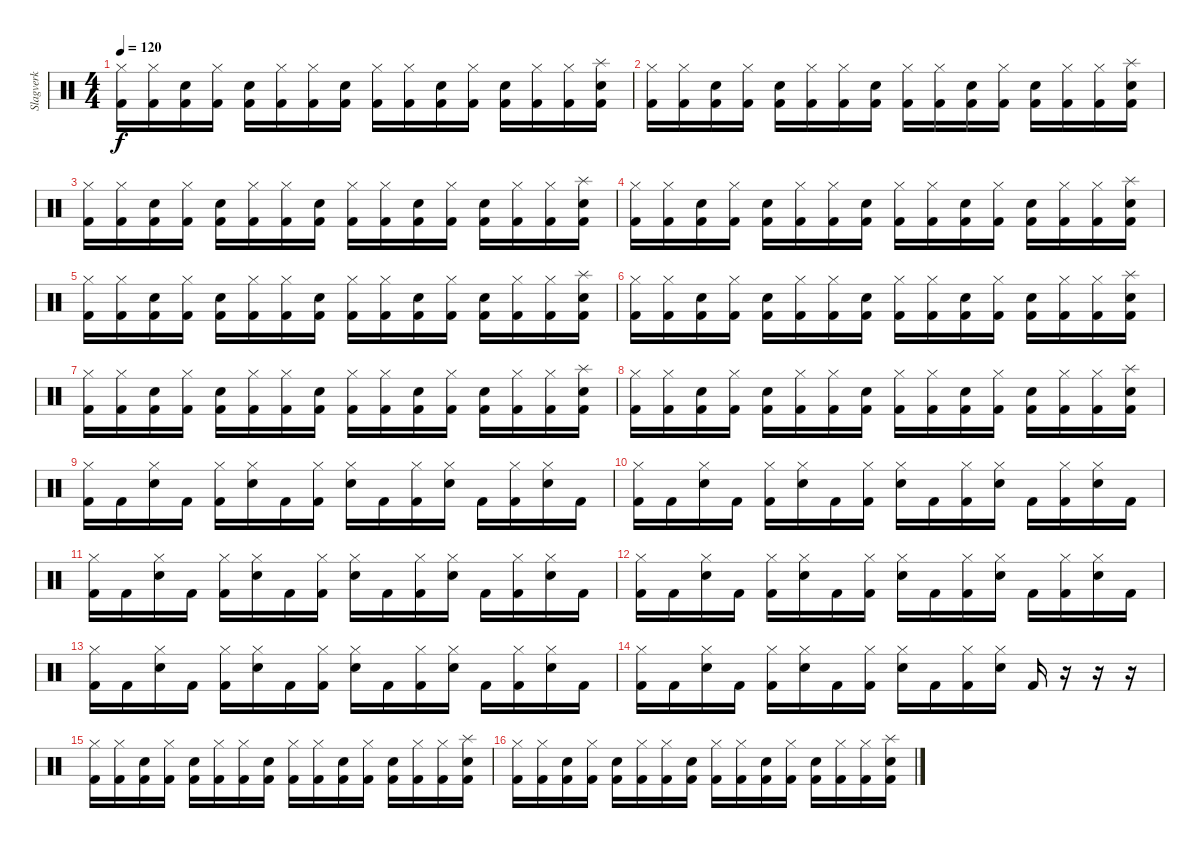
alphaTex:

\track ("Slagverk" "Slagverk") {instrument percussion}
\staff {score}
\articulation defaults
\ts (4 4)
\tempo 120
\clef neutral
\ks c
("Kick (hit) 2" "Hi-Hat (closed)").16{dy f} ("Kick (hit) 2" "Hi-Hat (closed)").16 ("Kick (hit) 2" "Snare (hit) 2").16 ("Kick (hit) 2" "Hi-Hat (closed)").16 ("Kick (hit) 2" "Snare (hit) 2").16 ("Kick (hit) 2" "Hi-Hat (closed)").16 ("Kick (hit) 2" "Hi-Hat (closed)").16 ("Kick (hit) 2" "Snare (hit) 2").16 ("Kick (hit) 2" "Hi-Hat (closed)").16 ("Kick (hit) 2" "Hi-Hat (closed)").16 ("Kick (hit) 2" "Snare (hit) 2").16 ("Kick (hit) 2" "Hi-Hat (closed)").16 ("Kick (hit) 2" "Snare (hit) 2").16 ("Kick (hit) 2" "Hi-Hat (closed)").16 ("Kick (hit) 2" "Hi-Hat (closed)").16 ("Kick (hit) 2" "Splash (hit)" "Snare (hit) 2").16 |
("Kick (hit) 2" "Hi-Hat (closed)").16 ("Kick (hit) 2" "Hi-Hat (closed)").16 ("Kick (hit) 2" "Snare (hit) 2").16 ("Kick (hit) 2" "Hi-Hat (closed)").16 ("Kick (hit) 2" "Snare (hit) 2").16 ("Kick (hit) 2" "Hi-Hat (closed)").16 ("Kick (hit) 2" "Hi-Hat (closed)").16 ("Kick (hit) 2" "Snare (hit) 2").16 ("Kick (hit) 2" "Hi-Hat (closed)").16 ("Kick (hit) 2" "Hi-Hat (closed)").16 ("Kick (hit) 2" "Snare (hit) 2").16 ("Kick (hit) 2" "Hi-Hat (closed)").16 ("Kick (hit) 2" "Snare (hit) 2").16 ("Kick (hit) 2" "Hi-Hat (closed)").16 ("Kick (hit) 2" "Hi-Hat (closed)").16 ("Kick (hit) 2" "Splash (hit)" "Snare (hit) 2").16 |
("Kick (hit) 2" "Hi-Hat (closed)").16 ("Kick (hit) 2" "Hi-Hat (closed)").16 ("Kick (hit) 2" "Snare (hit) 2").16 ("Kick (hit) 2" "Hi-Hat (closed)").16 ("Kick (hit) 2" "Snare (hit) 2").16 ("Kick (hit) 2" "Hi-Hat (closed)").16 ("Kick (hit) 2" "Hi-Hat (closed)").16 ("Kick (hit) 2" "Snare (hit) 2").16 ("Kick (hit) 2" "Hi-Hat (closed)").16 ("Kick (hit) 2" "Hi-Hat (closed)").16 ("Kick (hit) 2" "Snare (hit) 2").16 ("Kick (hit) 2" "Hi-Hat (closed)").16 ("Kick (hit) 2" "Snare (hit) 2").16 ("Kick (hit) 2" "Hi-Hat (closed)").16 ("Kick (hit) 2" "Hi-Hat (closed)").16 ("Kick (hit) 2" "Splash (hit)" "Snare (hit) 2").16 |
("Kick (hit) 2" "Hi-Hat (closed)").16 ("Kick (hit) 2" "Hi-Hat (closed)").16 ("Kick (hit) 2" "Snare (hit) 2").16 ("Kick (hit) 2" "Hi-Hat (closed)").16 ("Kick (hit) 2" "Snare (hit) 2").16 ("Kick (hit) 2" "Hi-Hat (closed)").16 ("Kick (hit) 2" "Hi-Hat (closed)").16 ("Kick (hit) 2" "Snare (hit) 2").16 ("Kick (hit) 2" "Hi-Hat (closed)").16 ("Kick (hit) 2" "Hi-Hat (closed)").16 ("Kick (hit) 2" "Snare (hit) 2").16 ("Kick (hit) 2" "Hi-Hat (closed)").16 ("Kick (hit) 2" "Snare (hit) 2").16 ("Kick (hit) 2" "Hi-Hat (closed)").16 ("Kick (hit) 2" "Hi-Hat (closed)").16 ("Kick (hit) 2" "Splash (hit)" "Snare (hit) 2").16 |
("Kick (hit) 2" "Hi-Hat (closed)").16 ("Kick (hit) 2" "Hi-Hat (closed)").16 ("Kick (hit) 2" "Snare (hit) 2").16 ("Kick (hit) 2" "Hi-Hat (closed)").16 ("Kick (hit) 2" "Snare (hit) 2").16 ("Kick (hit) 2" "Hi-Hat (closed)").16 ("Kick (hit) 2" "Hi-Hat (closed)").16 ("Kick (hit) 2" "Snare (hit) 2").16 ("Kick (hit) 2" "Hi-Hat (closed)").16 ("Kick (hit) 2" "Hi-Hat (closed)").16 ("Kick (hit) 2" "Snare (hit) 2").16 ("Kick (hit) 2" "Hi-Hat (closed)").16 ("Kick (hit) 2" "Snare (hit) 2").16 ("Kick (hit) 2" "Hi-Hat (closed)").16 ("Kick (hit) 2" "Hi-Hat (closed)").16 ("Kick (hit) 2" "Splash (hit)" "Snare (hit) 2").16 |
("Kick (hit) 2" "Hi-Hat (closed)").16 ("Kick (hit) 2" "Hi-Hat (closed)").16 ("Kick (hit) 2" "Snare (hit) 2").16 ("Kick (hit) 2" "Hi-Hat (closed)").16 ("Kick (hit) 2" "Snare (hit) 2").16 ("Kick (hit) 2" "Hi-Hat (closed)").16 ("Kick (hit) 2" "Hi-Hat (closed)").16 ("Kick (hit) 2" "Snare (hit) 2").16 ("Kick (hit) 2" "Hi-Hat (closed)").16 ("Kick (hit) 2" "Hi-Hat (closed)").16 ("Kick (hit) 2" "Snare (hit) 2").16 ("Kick (hit) 2" "Hi-Hat (closed)").16 ("Kick (hit) 2" "Snare (hit) 2").16 ("Kick (hit) 2" "Hi-Hat (closed)").16 ("Kick (hit) 2" "Hi-Hat (closed)").16 ("Kick (hit) 2" "Splash (hit)" "Snare (hit) 2").16 |
("Kick (hit) 2" "Hi-Hat (closed)").16 ("Kick (hit) 2" "Hi-Hat (closed)").16 ("Kick (hit) 2" "Snare (hit) 2").16 ("Kick (hit) 2" "Hi-Hat (closed)").16 ("Kick (hit) 2" "Snare (hit) 2").16 ("Kick (hit) 2" "Hi-Hat (closed)").16 ("Kick (hit) 2" "Hi-Hat (closed)").16 ("Kick (hit) 2" "Snare (hit) 2").16 ("Kick (hit) 2" "Hi-Hat (closed)").16 ("Kick (hit) 2" "Hi-Hat (closed)").16 ("Kick (hit) 2" "Snare (hit) 2").16 ("Kick (hit) 2" "Hi-Hat (closed)").16 ("Kick (hit) 2" "Snare (hit) 2").16 ("Kick (hit) 2" "Hi-Hat (closed)").16 ("Kick (hit) 2" "Hi-Hat (closed)").16 ("Kick (hit) 2" "Splash (hit)" "Snare (hit) 2").16 |
("Kick (hit) 2" "Hi-Hat (closed)").16 ("Kick (hit) 2" "Hi-Hat (closed)").16 ("Kick (hit) 2" "Snare (hit) 2").16 ("Kick (hit) 2" "Hi-Hat (closed)").16 ("Kick (hit) 2" "Snare (hit) 2").16 ("Kick (hit) 2" "Hi-Hat (closed)").16 ("Kick (hit) 2" "Hi-Hat (closed)").16 ("Kick (hit) 2" "Snare (hit) 2").16 ("Kick (hit) 2" "Hi-Hat (closed)").16 ("Kick (hit) 2" "Hi-Hat (closed)").16 ("Kick (hit) 2" "Snare (hit) 2").16 ("Kick (hit) 2" "Hi-Hat (closed)").16 ("Kick (hit) 2" "Snare (hit) 2").16 ("Kick (hit) 2" "Hi-Hat (closed)").16 ("Kick (hit) 2" "Hi-Hat (closed)").16 ("Kick (hit) 2" "Splash (hit)" "Snare (hit) 2").16 |
("Kick (hit) 2" "Hi-Hat (closed)").16 "Kick (hit) 2".16 ("Hi-Hat (closed)" "Snare (hit) 2").16 "Kick (hit) 2".16 ("Kick (hit) 2" "Hi-Hat (closed)").16 ("Hi-Hat (closed)" "Snare (hit) 2").16 "Kick (hit) 2".16 ("Kick (hit) 2" "Hi-Hat (closed)").16 ("Hi-Hat (closed)" "Snare (hit) 2").16 "Kick (hit) 2".16 ("Kick (hit) 2" "Hi-Hat (closed)").16 ("Hi-Hat (closed)" "Snare (hit) 2").16 "Kick (hit) 2".16 ("Kick (hit) 2" "Hi-Hat (closed)").16 ("Hi-Hat (closed)" "Snare (hit) 2").16 "Kick (hit) 2".16 |
("Kick (hit) 2" "Hi-Hat (closed)").16 "Kick (hit) 2".16 ("Hi-Hat (closed)" "Snare (hit) 2").16 "Kick (hit) 2".16 ("Kick (hit) 2" "Hi-Hat (closed)").16 ("Hi-Hat (closed)" "Snare (hit) 2").16 "Kick (hit) 2".16 ("Kick (hit) 2" "Hi-Hat (closed)").16 ("Hi-Hat (closed)" "Snare (hit) 2").16 "Kick (hit) 2".16 ("Kick (hit) 2" "Hi-Hat (closed)").16 ("Hi-Hat (closed)" "Snare (hit) 2").16 "Kick (hit) 2".16 ("Kick (hit) 2" "Hi-Hat (closed)").16 ("Hi-Hat (closed)" "Snare (hit) 2").16 "Kick (hit) 2".16 |
("Kick (hit) 2" "Hi-Hat (closed)").16 "Kick (hit) 2".16 ("Hi-Hat (closed)" "Snare (hit) 2").16 "Kick (hit) 2".16 ("Kick (hit) 2" "Hi-Hat (closed)").16 ("Hi-Hat (closed)" "Snare (hit) 2").16 "Kick (hit) 2".16 ("Kick (hit) 2" "Hi-Hat (closed)").16 ("Hi-Hat (closed)" "Snare (hit) 2").16 "Kick (hit) 2".16 ("Kick (hit) 2" "Hi-Hat (closed)").16 ("Hi-Hat (closed)" "Snare (hit) 2").16 "Kick (hit) 2".16 ("Kick (hit) 2" "Hi-Hat (closed)").16 ("Hi-Hat (closed)" "Snare (hit) 2").16 "Kick (hit) 2".16 |
("Kick (hit) 2" "Hi-Hat (closed)").16 "Kick (hit) 2".16 ("Hi-Hat (closed)" "Snare (hit) 2").16 "Kick (hit) 2".16 ("Kick (hit) 2" "Hi-Hat (closed)").16 ("Hi-Hat (closed)" "Snare (hit) 2").16 "Kick (hit) 2".16 ("Kick (hit) 2" "Hi-Hat (closed)").16 ("Hi-Hat (closed)" "Snare (hit) 2").16 "Kick (hit) 2".16 ("Kick (hit) 2" "Hi-Hat (closed)").16 ("Hi-Hat (closed)" "Snare (hit) 2").16 "Kick (hit) 2".16 ("Kick (hit) 2" "Hi-Hat (closed)").16 ("Hi-Hat (closed)" "Snare (hit) 2").16 "Kick (hit) 2".16 |
("Kick (hit) 2" "Hi-Hat (closed)").16 "Kick (hit) 2".16 ("Hi-Hat (closed)" "Snare (hit) 2").16 "Kick (hit) 2".16 ("Kick (hit) 2" "Hi-Hat (closed)").16 ("Hi-Hat (closed)" "Snare (hit) 2").16 "Kick (hit) 2".16 ("Kick (hit) 2" "Hi-Hat (closed)").16 ("Hi-Hat (closed)" "Snare (hit) 2").16 "Kick (hit) 2".16 ("Kick (hit) 2" "Hi-Hat (closed)").16 ("Hi-Hat (closed)" "Snare (hit) 2").16 "Kick (hit) 2".16 ("Kick (hit) 2" "Hi-Hat (closed)").16 ("Hi-Hat (closed)" "Snare (hit) 2").16 "Kick (hit) 2".16 |
("Kick (hit) 2" "Hi-Hat (closed)").16 "Kick (hit) 2".16 ("Hi-Hat (closed)" "Snare (hit) 2").16 "Kick (hit) 2".16 ("Kick (hit) 2" "Hi-Hat (closed)").16 ("Hi-Hat (closed)" "Snare (hit) 2").16 "Kick (hit) 2".16 ("Kick (hit) 2" "Hi-Hat (closed)").16 ("Hi-Hat (closed)" "Snare (hit) 2").16 "Kick (hit) 2".16 ("Kick (hit) 2" "Hi-Hat (closed)").16 ("Hi-Hat (closed)" "Snare (hit) 2").16 "Kick (hit) 2".16 r.16 r.16 r.16 |
("Kick (hit) 2" "Hi-Hat (closed)").16 ("Kick (hit) 2" "Hi-Hat (closed)").16 ("Kick (hit) 2" "Snare (hit) 2").16 ("Kick (hit) 2" "Hi-Hat (closed)").16 ("Kick (hit) 2" "Snare (hit) 2").16 ("Kick (hit) 2" "Hi-Hat (closed)").16 ("Kick (hit) 2" "Hi-Hat (closed)").16 ("Kick (hit) 2" "Snare (hit) 2").16 ("Kick (hit) 2" "Hi-Hat (closed)").16 ("Kick (hit) 2" "Hi-Hat (closed)").16 ("Kick (hit) 2" "Snare (hit) 2").16 ("Kick (hit) 2" "Hi-Hat (closed)").16 ("Kick (hit) 2" "Snare (hit) 2").16 ("Kick (hit) 2" "Hi-Hat (closed)").16 ("Kick (hit) 2" "Hi-Hat (closed)").16 ("Kick (hit) 2" "Splash (hit)" "Snare (hit) 2").16 |
("Kick (hit) 2" "Hi-Hat (closed)").16 ("Kick (hit) 2" "Hi-Hat (closed)").16 ("Kick (hit) 2" "Snare (hit) 2").16 ("Kick (hit) 2" "Hi-Hat (closed)").16 ("Kick (hit) 2" "Snare (hit) 2").16 ("Kick (hit) 2" "Hi-Hat (closed)").16 ("Kick (hit) 2" "Hi-Hat (closed)").16 ("Kick (hit) 2" "Snare (hit) 2").16 ("Kick (hit) 2" "Hi-Hat (closed)").16 ("Kick (hit) 2" "Hi-Hat (closed)").16 ("Kick (hit) 2" "Snare (hit) 2").16 ("Kick (hit) 2" "Hi-Hat (closed)").16 ("Kick (hit) 2" "Snare (hit) 2").16 ("Kick (hit) 2" "Hi-Hat (closed)").16 ("Kick (hit) 2" "Hi-Hat (closed)").16 ("Kick (hit) 2" "Splash (hit)" "Snare (hit) 2").16
